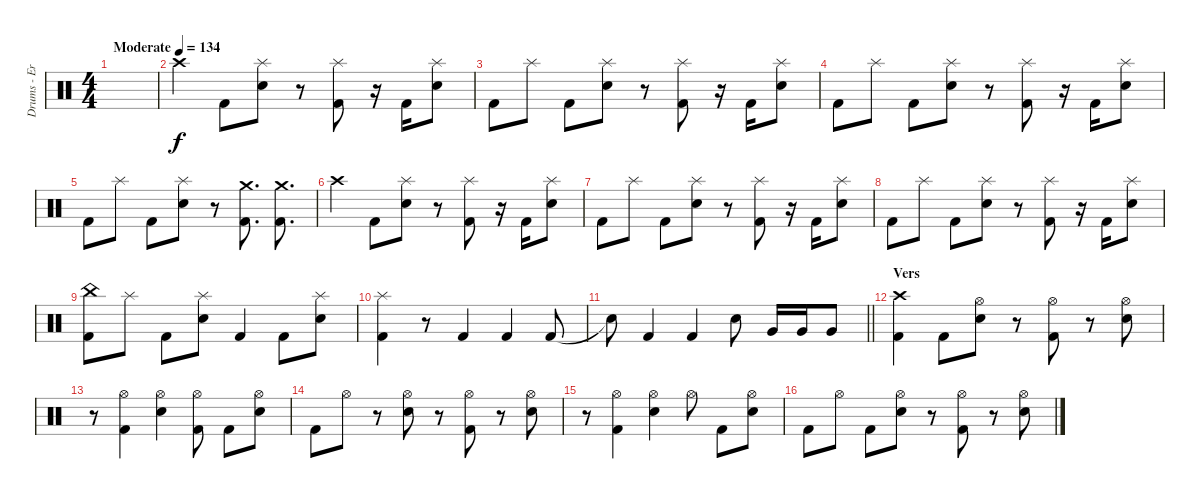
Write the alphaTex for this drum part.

\track ("Drums - Eric Young" "Drums - Er") {instrument percussion}
\staff {score}
\articulation defaults
\ts (4 4)
\tempo (134 "Moderate")
\clef neutral
\ks c
|
"Crash high (hit)".4 "Kick (hit) 2".8 ("Splash (hit)" "Electric Snare (hit)").8 r.8 ("Splash (hit)" "Kick (hit) 2").8 r.16 "Kick (hit) 2".16 ("Splash (hit)" "Electric Snare (hit)").8 |
"Kick (hit) 2".8 "Splash (hit)".8 "Kick (hit) 2".8 ("Splash (hit)" "Electric Snare (hit)").8 r.8 ("Splash (hit)" "Kick (hit) 2").8 r.16 "Kick (hit) 2".16 ("Splash (hit)" "Electric Snare (hit)").8 |
"Kick (hit) 2".8 "Splash (hit)".8 "Kick (hit) 2".8 ("Splash (hit)" "Electric Snare (hit)").8 r.8 ("Splash (hit)" "Kick (hit) 2").8 r.16 "Kick (hit) 2".16 ("Splash (hit)" "Electric Snare (hit)").8 |
"Kick (hit) 2".8 "Splash (hit)".8 "Kick (hit) 2".8 ("Splash (hit)" "Electric Snare (hit)").8 r.8 ("Crash medium (hit)" "Kick (hit) 2").8{d} ("Crash medium (hit)" "Kick (hit) 2").8{d} |
"Crash high (hit)".4 "Kick (hit) 2".8 ("Splash (hit)" "Electric Snare (hit)").8 r.8 ("Splash (hit)" "Kick (hit) 2").8 r.16 "Kick (hit) 2".16 ("Splash (hit)" "Electric Snare (hit)").8 |
"Kick (hit) 2".8 "Splash (hit)".8 "Kick (hit) 2".8 ("Splash (hit)" "Electric Snare (hit)").8 r.8 ("Splash (hit)" "Kick (hit) 2").8 r.16 "Kick (hit) 2".16 ("Splash (hit)" "Electric Snare (hit)").8 |
"Kick (hit) 2".8 "Splash (hit)".8 "Kick (hit) 2".8 ("Splash (hit)" "Electric Snare (hit)").8 r.8 ("Splash (hit)" "Kick (hit) 2").8 r.16 "Kick (hit) 2".16 ("Splash (hit)" "Electric Snare (hit)").8 |
("China (hit)" "Kick (hit) 2").8 "Splash (hit)".8 "Kick (hit) 2".8 ("Splash (hit)" "Electric Snare (hit)").8 "Kick (hit) 2".4 "Kick (hit) 2".8 ("Splash (hit)" "Electric Snare (hit)").8 |
("Splash (hit)" "Kick (hit) 2").4 r.8 "Kick (hit) 2".4 "Kick (hit) 2".4 "Kick (hit) 2".8 |
\barLineRight lightlight "Snare (hit)"{t}.8 "Kick (hit) 2".4 "Kick (hit) 2".4 "Electric Snare (hit)".8 "Very Low Tom (hit)".16 "Very Low Tom (hit)".16 "Very Low Tom (hit)".8
|
\section ("" "Vers")
("Crash high (hit)" "Kick (hit) 2").4 "Kick (hit) 2".8 ("Hi-Hat (open)" "Electric Snare (hit)").8 r.8 ("Hi-Hat (open)" "Kick (hit) 2").8 r.8 ("Hi-Hat (open)" "Electric Snare (hit)").8 |
r.8 ("Hi-Hat (open)" "Kick (hit) 2").4 ("Hi-Hat (open)" "Electric Snare (hit)").4 ("Hi-Hat (open)" "Kick (hit) 2").8 "Kick (hit) 2".8 ("Hi-Hat (open)" "Electric Snare (hit)").8 |
"Kick (hit) 2".8 "Hi-Hat (open)".8 r.8 ("Hi-Hat (open)" "Electric Snare (hit)").8 r.8 ("Hi-Hat (open)" "Kick (hit) 2").8 r.8 ("Hi-Hat (open)" "Electric Snare (hit)").8 |
r.8 ("Hi-Hat (open)" "Kick (hit) 2").4 ("Hi-Hat (open)" "Electric Snare (hit)").4 "Hi-Hat (open)".8 "Kick (hit) 2".8 ("Hi-Hat (open)" "Electric Snare (hit)").8 |
"Kick (hit) 2".8 "Hi-Hat (open)".8 "Kick (hit) 2".8 ("Hi-Hat (open)" "Electric Snare (hit)").8 r.8 ("Hi-Hat (open)" "Kick (hit) 2").8 r.8 ("Hi-Hat (open)" "Electric Snare (hit)").8
